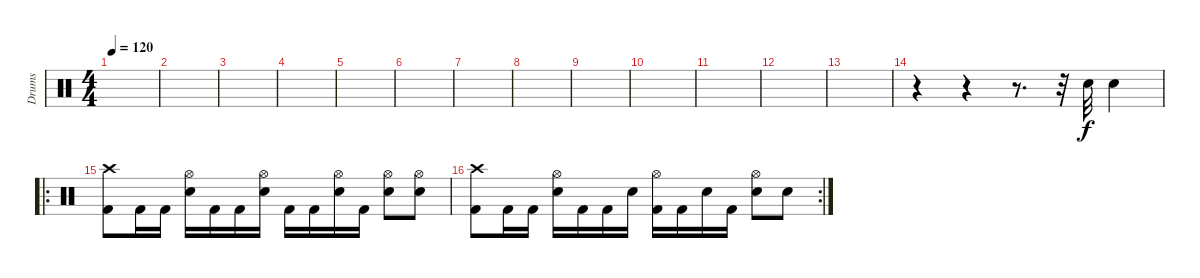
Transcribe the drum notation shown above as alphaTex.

\track ("Drums" "Drums") {instrument percussion}
\staff {score}
\articulation defaults
\ts (4 4)
\tempo 120
\clef neutral
\ks c
|
|
|
|
|
|
|
|
|
|
|
|
|
r.4 r.4 r.8{d} r.32 "Electric Snare (hit)".32 "Electric Snare (hit)".4 |
\ro
("Crash high (hit)" "Kick (hit) 2").8 "Kick (hit) 2".16 "Kick (hit) 2".16 ("Hi-Hat (open)" "Electric Snare (hit)").16 "Kick (hit) 2".16 "Kick (hit) 2".16 ("Hi-Hat (open)" "Electric Snare (hit)").16 "Kick (hit) 2".16 "Kick (hit) 2".16 ("Hi-Hat (open)" "Electric Snare (hit)").16 "Kick (hit) 2".16 ("Hi-Hat (open)" "Electric Snare (hit)").8 ("Hi-Hat (open)" "Electric Snare (hit)").8 |
\rc 2
("Crash high (hit)" "Kick (hit) 2").8 "Kick (hit) 2".16 "Kick (hit) 2".16 ("Hi-Hat (open)" "Electric Snare (hit)").16 "Kick (hit) 2".16 "Kick (hit) 2".16 "Electric Snare (hit)".16 ("Hi-Hat (open)" "Kick (hit) 2").16 "Kick (hit) 2".16 "Electric Snare (hit)".16 "Kick (hit) 2".16 ("Hi-Hat (open)" "Electric Snare (hit)").8 "Electric Snare (hit)".8
